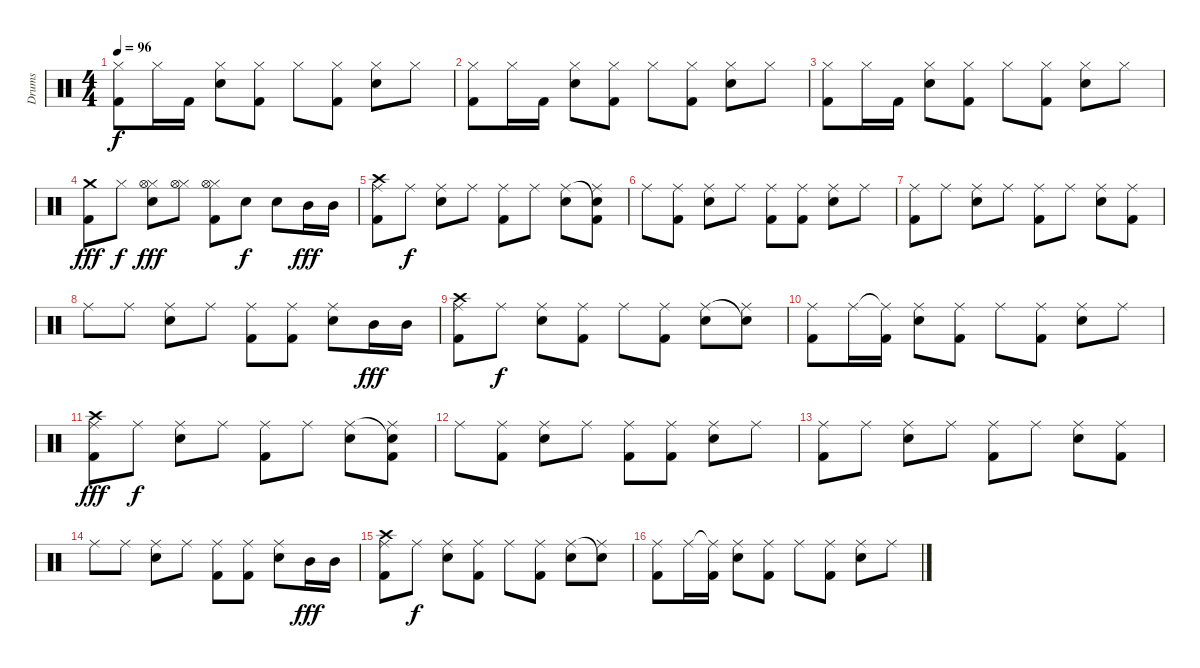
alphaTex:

\track ("Drums" "Drums") {instrument percussion}
\staff {score}
\articulation defaults
\ts (4 4)
\tempo 96
\clef neutral
\ks c
("Hi-Hat (closed)" "Kick (hit) 2").8{dy f} "Hi-Hat (closed)".16 "Kick (hit) 2".16 ("Hi-Hat (closed)" "Snare (hit) 2").8 ("Hi-Hat (closed)" "Kick (hit) 2").8 "Hi-Hat (closed)".8 ("Hi-Hat (closed)" "Kick (hit) 2").8 ("Hi-Hat (closed)" "Snare (hit) 2").8 "Hi-Hat (closed)".8 |
("Hi-Hat (closed)" "Kick (hit) 2").8 "Hi-Hat (closed)".16 "Kick (hit) 2".16 ("Hi-Hat (closed)" "Snare (hit) 2").8 ("Hi-Hat (closed)" "Kick (hit) 2").8 "Hi-Hat (closed)".8 ("Hi-Hat (closed)" "Kick (hit) 2").8 ("Hi-Hat (closed)" "Snare (hit) 2").8 "Hi-Hat (closed)".8 |
("Hi-Hat (closed)" "Kick (hit) 2").8 "Hi-Hat (closed)".16 "Kick (hit) 2".16 ("Hi-Hat (closed)" "Snare (hit) 2").8 ("Hi-Hat (closed)" "Kick (hit) 2").8 "Hi-Hat (closed)".8 ("Hi-Hat (closed)" "Kick (hit) 2").8 ("Hi-Hat (closed)" "Snare (hit) 2").8 "Hi-Hat (closed)".8 |
("Crash medium (hit)" "Kick (hit) 2").8{dy fff} "Hi-Hat (closed)".8{dy f} ("Hi-Hat (closed)" "Snare (hit) 2" "Hi-Hat (open)").8{dy fff} ("Hi-Hat (closed)" "Hi-Hat (open)").8 ("Hi-Hat (closed)" "Hi-Hat (open)" "Kick (hit) 2").8 "Snare (hit) 2".8{dy f} "Snare (hit) 2".8 "Mid Tom (hit)".16{dy fff} "Mid Tom (hit)".16 |
("Crash high (hit)" "Ride (middle)" "Kick (hit) 2").8 "Ride (middle)".8{dy f} ("Ride (middle)" "Snare (hit) 2").8 "Ride (middle)".8 ("Ride (middle)" "Kick (hit) 2").8 "Ride (middle)".8 ("Ride (middle)" "Snare (hit) 2").8 ("Snare (hit)"{t} "Ride (middle)" "Kick (hit) 2").8 |
"Ride (middle)".8 ("Ride (middle)" "Kick (hit) 2").8 ("Ride (middle)" "Snare (hit) 2").8 "Ride (middle)".8 ("Ride (middle)" "Kick (hit) 2").8 ("Ride (middle)" "Kick (hit) 2").8 ("Ride (middle)" "Snare (hit) 2").8 "Ride (middle)".8 |
("Ride (middle)" "Kick (hit) 2").8 "Ride (middle)".8 ("Ride (middle)" "Snare (hit) 2").8 "Ride (middle)".8 ("Ride (middle)" "Kick (hit) 2").8 "Ride (middle)".8 ("Ride (middle)" "Snare (hit) 2").8 ("Ride (middle)" "Kick (hit) 2").8 |
"Ride (middle)".8 "Ride (middle)".8 ("Ride (middle)" "Snare (hit) 2").8 "Ride (middle)".8 ("Ride (middle)" "Kick (hit) 2").8 ("Ride (middle)" "Kick (hit) 2").8 ("Ride (middle)" "Snare (hit) 2").8 "Mid Tom (hit)".16{dy fff} "Mid Tom (hit)".16 |
("Crash high (hit)" "Ride (middle)" "Kick (hit) 2").8 "Ride (middle)".8{dy f} ("Ride (middle)" "Snare (hit) 2").8 ("Ride (middle)" "Kick (hit) 2").8 "Ride (middle)".8 ("Ride (middle)" "Kick (hit) 2").8 ("Ride (middle)" "Snare (hit) 2").8 ("Snare (hit)"{t} "Ride (middle)").8 |
("Ride (middle)" "Kick (hit) 2").8 "Ride (middle)".16 ("Ride (middle)"{t} "Kick (hit) 2").16 ("Ride (middle)" "Snare (hit) 2").8 ("Ride (middle)" "Kick (hit) 2").8 "Ride (middle)".8 ("Ride (middle)" "Kick (hit) 2").8 ("Ride (middle)" "Snare (hit) 2").8 "Ride (middle)".8 |
("Crash high (hit)" "Ride (middle)" "Kick (hit) 2").8{dy fff} "Ride (middle)".8{dy f} ("Ride (middle)" "Snare (hit) 2").8 "Ride (middle)".8 ("Ride (middle)" "Kick (hit) 2").8 "Ride (middle)".8 ("Ride (middle)" "Snare (hit) 2").8 ("Snare (hit)"{t} "Ride (middle)" "Kick (hit) 2").8 |
"Ride (middle)".8 ("Ride (middle)" "Kick (hit) 2").8 ("Ride (middle)" "Snare (hit) 2").8 "Ride (middle)".8 ("Ride (middle)" "Kick (hit) 2").8 ("Ride (middle)" "Kick (hit) 2").8 ("Ride (middle)" "Snare (hit) 2").8 "Ride (middle)".8 |
("Ride (middle)" "Kick (hit) 2").8 "Ride (middle)".8 ("Ride (middle)" "Snare (hit) 2").8 "Ride (middle)".8 ("Ride (middle)" "Kick (hit) 2").8 "Ride (middle)".8 ("Ride (middle)" "Snare (hit) 2").8 ("Ride (middle)" "Kick (hit) 2").8 |
"Ride (middle)".8 "Ride (middle)".8 ("Ride (middle)" "Snare (hit) 2").8 "Ride (middle)".8 ("Ride (middle)" "Kick (hit) 2").8 ("Ride (middle)" "Kick (hit) 2").8 ("Ride (middle)" "Snare (hit) 2").8 "Mid Tom (hit)".16{dy fff} "Mid Tom (hit)".16 |
("Crash high (hit)" "Ride (middle)" "Kick (hit) 2").8 "Ride (middle)".8{dy f} ("Ride (middle)" "Snare (hit) 2").8 ("Ride (middle)" "Kick (hit) 2").8 "Ride (middle)".8 ("Ride (middle)" "Kick (hit) 2").8 ("Ride (middle)" "Snare (hit) 2").8 ("Snare (hit)"{t} "Ride (middle)").8 |
("Ride (middle)" "Kick (hit) 2").8 "Ride (middle)".16 ("Ride (middle)"{t} "Kick (hit) 2").16 ("Ride (middle)" "Snare (hit) 2").8 ("Ride (middle)" "Kick (hit) 2").8 "Ride (middle)".8 ("Ride (middle)" "Kick (hit) 2").8 ("Ride (middle)" "Snare (hit) 2").8 "Ride (middle)".8
